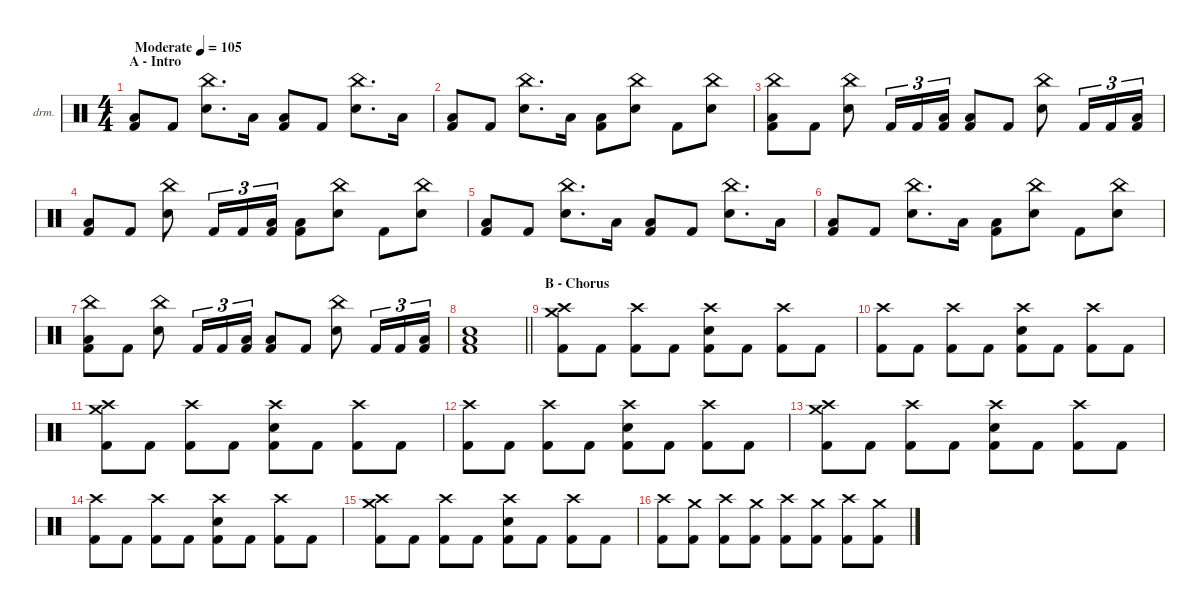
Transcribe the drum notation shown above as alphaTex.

\defaultSystemsLayout 4
\hideDynamics
\bracketExtendMode nobrackets
\firstSystemTrackNameOrientation horizontal
\otherSystemsTrackNameOrientation horizontal
\track ("Percussions" "drm.") {instrument percussion}
\staff {score}
\articulation defaults
\ts (4 4)
\beaming (8 2 2 2 2)
\section ("" "A - Intro")
\tempo (105 "Moderate")
\clef neutral
\ks c
("Low Tom (hit)" "Kick (hit) 2").8{dy f} "Kick (hit) 2".8 ("China (hit)" "Snare (hit) 2").8{d} "Low Tom (hit)".16 ("Low Tom (hit)" "Kick (hit) 2").8 "Kick (hit) 2".8 ("China (hit)" "Snare (hit) 2").8{d} "Low Tom (hit)".16 |
("Low Tom (hit)" "Kick (hit) 2").8 "Kick (hit) 2".8 ("China (hit)" "Snare (hit) 2").8{d} "Low Tom (hit)".16 ("Low Tom (hit)" "Kick (hit) 2").8 ("China (hit)" "Snare (hit) 2").8 "Kick (hit) 2".8 ("China (hit)" "Snare (hit) 2").8 |
("China (hit)" "Low Tom (hit)" "Kick (hit) 2").8 "Kick (hit) 2".8 ("China (hit)" "Snare (hit) 2").8 "Kick (hit) 2".16{tu (3 2) dy fff} "Kick (hit) 2".16{tu (3 2)} ("Low Tom (hit)" "Kick (hit) 2").16{tu (3 2) dy f} ("Low Tom (hit)" "Kick (hit) 2").8 "Kick (hit) 2".8 ("China (hit)" "Snare (hit) 2").8 "Kick (hit) 2".16{tu (3 2) dy fff} "Kick (hit) 2".16{tu (3 2)} ("Low Tom (hit)" "Kick (hit) 2").16{tu (3 2) dy f} |
("Low Tom (hit)" "Kick (hit) 2").8 "Kick (hit) 2".8{dy fff} ("China (hit)" "Snare (hit) 2").8{dy f} "Kick (hit) 2".16{tu (3 2) dy fff} "Kick (hit) 2".16{tu (3 2)} ("Low Tom (hit)" "Kick (hit) 2").16{tu (3 2) dy f} ("Low Tom (hit)" "Kick (hit) 2").8 ("China (hit)" "Snare (hit) 2").8 "Kick (hit) 2".8 ("China (hit)" "Snare (hit) 2").8 |
("Low Tom (hit)" "Kick (hit) 2").8 "Kick (hit) 2".8 ("China (hit)" "Snare (hit) 2").8{d} "Low Tom (hit)".16 ("Low Tom (hit)" "Kick (hit) 2").8 "Kick (hit) 2".8 ("China (hit)" "Snare (hit) 2").8{d} "Low Tom (hit)".16 |
("Low Tom (hit)" "Kick (hit) 2").8 "Kick (hit) 2".8 ("China (hit)" "Snare (hit) 2").8{d} "Low Tom (hit)".16 ("Low Tom (hit)" "Kick (hit) 2").8 ("China (hit)" "Snare (hit) 2").8 "Kick (hit) 2".8 ("China (hit)" "Snare (hit) 2").8 |
("China (hit)" "Low Tom (hit)" "Kick (hit) 2").8 "Kick (hit) 2".8 ("China (hit)" "Snare (hit) 2").8 "Kick (hit) 2".16{tu (3 2) dy fff} "Kick (hit) 2".16{tu (3 2)} ("Low Tom (hit)" "Kick (hit) 2").16{tu (3 2) dy f} ("Low Tom (hit)" "Kick (hit) 2").8 "Kick (hit) 2".8 ("China (hit)" "Snare (hit) 2").8 "Kick (hit) 2".16{tu (3 2) dy fff} "Kick (hit) 2".16{tu (3 2)} ("Low Tom (hit)" "Kick (hit) 2").16{tu (3 2) dy f} |
\barLineRight lightlight
("Snare (hit) 2" "Low Tom (hit)" "Kick (hit) 2").1{dy fff} |
\section ("" "B - Chorus")
("Crash medium (hit)" "Crash high (hit)" "Kick (hit) 2").8{dy f} "Kick (hit) 2".8 ("Crash high (hit)" "Kick (hit) 2").8 "Kick (hit) 2".8 ("Crash high (hit)" "Snare (hit) 2" "Kick (hit) 2").8 "Kick (hit) 2".8 ("Crash high (hit)" "Kick (hit) 2").8 "Kick (hit) 2".8 |
("Crash high (hit)" "Kick (hit) 2").8 "Kick (hit) 2".8 ("Crash high (hit)" "Kick (hit) 2").8 "Kick (hit) 2".8 ("Crash high (hit)" "Snare (hit) 2" "Kick (hit) 2").8 "Kick (hit) 2".8 ("Crash high (hit)" "Kick (hit) 2").8 "Kick (hit) 2".8 |
("Crash medium (hit)" "Crash high (hit)" "Kick (hit) 2").8 "Kick (hit) 2".8 ("Crash high (hit)" "Kick (hit) 2").8 "Kick (hit) 2".8 ("Crash high (hit)" "Snare (hit) 2" "Kick (hit) 2").8 "Kick (hit) 2".8 ("Crash high (hit)" "Kick (hit) 2").8 "Kick (hit) 2".8 |
("Crash high (hit)" "Kick (hit) 2").8 "Kick (hit) 2".8 ("Crash high (hit)" "Kick (hit) 2").8 "Kick (hit) 2".8 ("Crash high (hit)" "Snare (hit) 2" "Kick (hit) 2").8 "Kick (hit) 2".8 ("Crash high (hit)" "Kick (hit) 2").8 "Kick (hit) 2".8 |
("Crash medium (hit)" "Crash high (hit)" "Kick (hit) 2").8 "Kick (hit) 2".8 ("Crash high (hit)" "Kick (hit) 2").8 "Kick (hit) 2".8 ("Crash high (hit)" "Snare (hit) 2" "Kick (hit) 2").8 "Kick (hit) 2".8 ("Crash high (hit)" "Kick (hit) 2").8 "Kick (hit) 2".8 |
("Crash high (hit)" "Kick (hit) 2").8 "Kick (hit) 2".8 ("Crash high (hit)" "Kick (hit) 2").8 "Kick (hit) 2".8 ("Crash high (hit)" "Snare (hit) 2" "Kick (hit) 2").8 "Kick (hit) 2".8 ("Crash high (hit)" "Kick (hit) 2").8 "Kick (hit) 2".8 |
("Crash medium (hit)" "Crash high (hit)" "Kick (hit) 2").8 "Kick (hit) 2".8 ("Crash high (hit)" "Kick (hit) 2").8 "Kick (hit) 2".8 ("Crash high (hit)" "Snare (hit) 2" "Kick (hit) 2").8 "Kick (hit) 2".8 ("Crash high (hit)" "Kick (hit) 2").8 "Kick (hit) 2".8 |
("Crash high (hit)" "Kick (hit) 2").8 ("Crash medium (hit)" "Kick (hit) 2").8 ("Crash high (hit)" "Kick (hit) 2").8 ("Crash medium (hit)" "Kick (hit) 2").8 ("Crash high (hit)" "Kick (hit) 2").8 ("Crash medium (hit)" "Kick (hit) 2").8 ("Crash high (hit)" "Kick (hit) 2").8 ("Crash medium (hit)" "Kick (hit) 2").8
